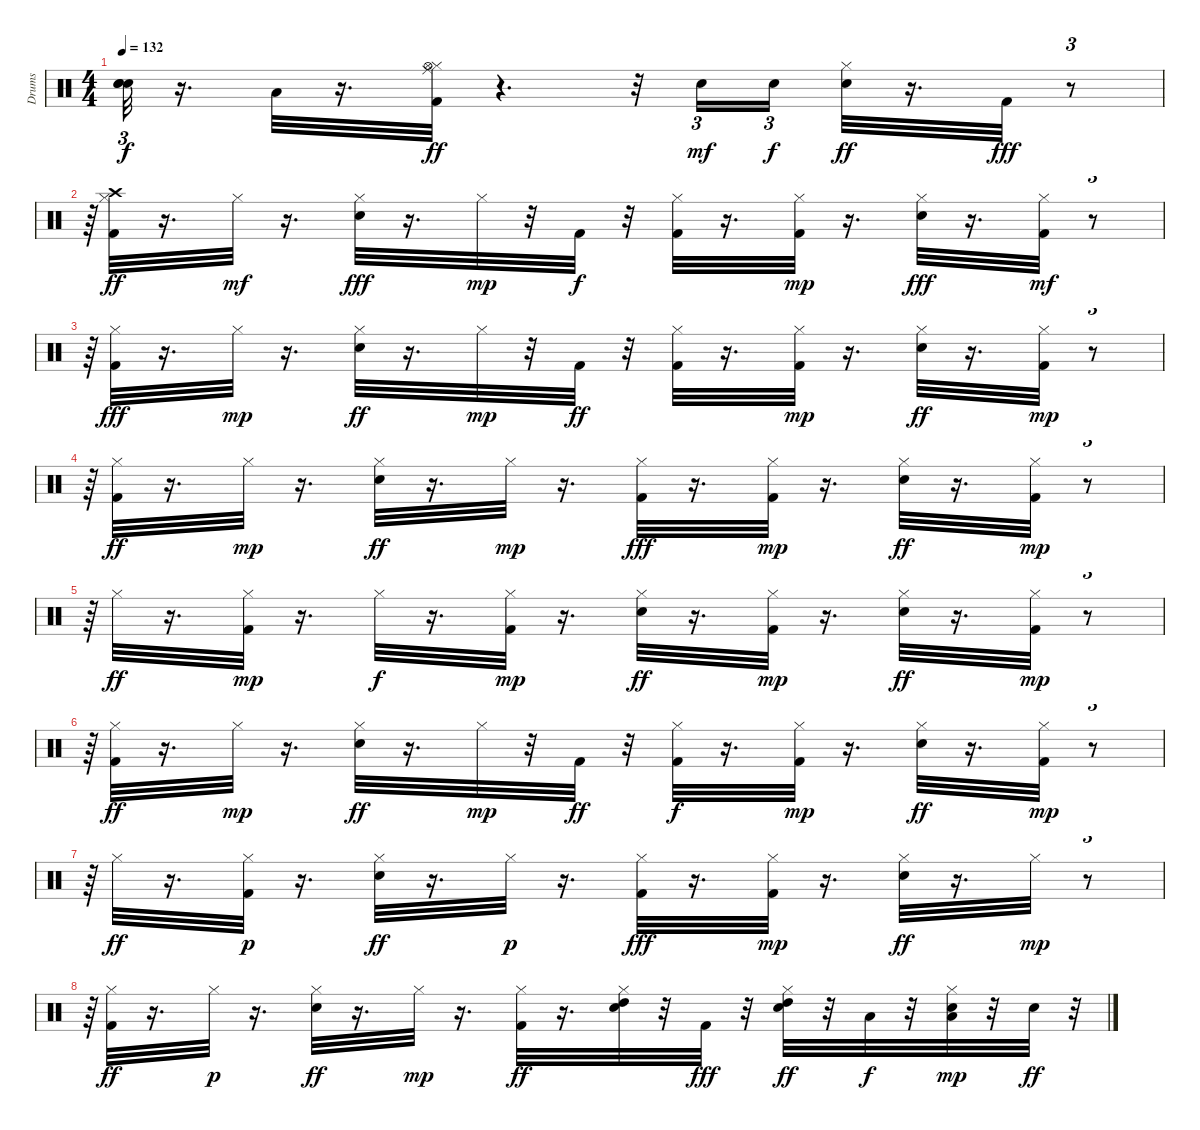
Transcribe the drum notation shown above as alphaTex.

\track ("Drums" "Drums") {instrument percussion}
\staff {score}
\articulation defaults
\ts (4 4)
\tempo 132
\clef neutral
\ks c
("Snare (hit)"{t} "Snare (hit)"{t} "Snare (hit)"{t}).32{tu (3 2) dy f} r.16{d} "Low Floor Tom (hit)".32 r.16{d} ("Kick (hit) 2" "Hi-Hat (closed)" "Ride (middle)" "Hi-Hat (open)").32{dy ff} r.4{d} r.32 "Snare (hit) 2".16{tu (3 2) dy mf} "Snare (hit) 2".16{tu (3 2) dy f} ("Snare (hit) 2" "Hi-Hat (closed)").32{dy ff} r.16{d} "Kick (hit) 2".32{dy fff} r.8{tu (3 2)} |
r.64{tu (3 2)} ("Kick (hit) 2" "Hi-Hat (closed)" "Crash high (hit)").32{dy ff} r.16{d} "Hi-Hat (closed)".32{dy mf} r.16{d} ("Snare (hit) 2" "Hi-Hat (closed)").32{dy fff} r.16{d} "Hi-Hat (closed)".32{dy mp} r.32 "Kick (hit) 2".32{dy f} r.32 ("Kick (hit) 2" "Hi-Hat (closed)").32 r.16{d} ("Kick (hit) 2" "Hi-Hat (closed)").32{dy mp} r.16{d} ("Snare (hit) 2" "Hi-Hat (closed)").32{dy fff} r.16{d} ("Kick (hit) 2" "Hi-Hat (closed)").32{dy mf} r.8{tu (3 2)} |
r.64{tu (3 2)} ("Kick (hit) 2" "Hi-Hat (closed)").32{dy fff} r.16{d} "Hi-Hat (closed)".32{dy mp} r.16{d} ("Snare (hit) 2" "Hi-Hat (closed)").32{dy ff} r.16{d} "Hi-Hat (closed)".32{dy mp} r.32 "Kick (hit) 2".32{dy ff} r.32 ("Kick (hit) 2" "Hi-Hat (closed)").32 r.16{d} ("Kick (hit) 2" "Hi-Hat (closed)").32{dy mp} r.16{d} ("Snare (hit) 2" "Hi-Hat (closed)").32{dy ff} r.16{d} ("Kick (hit) 2" "Hi-Hat (closed)").32{dy mp} r.8{tu (3 2)} |
r.64{tu (3 2)} ("Kick (hit) 2" "Hi-Hat (closed)").32{dy ff} r.16{d} "Hi-Hat (closed)".32{dy mp} r.16{d} ("Snare (hit) 2" "Hi-Hat (closed)").32{dy ff} r.16{d} "Hi-Hat (closed)".32{dy mp} r.16{d} ("Kick (hit) 2" "Hi-Hat (closed)").32{dy fff} r.16{d} ("Kick (hit) 2" "Hi-Hat (closed)").32{dy mp} r.16{d} ("Snare (hit) 2" "Hi-Hat (closed)").32{dy ff} r.16{d} ("Kick (hit) 2" "Hi-Hat (closed)").32{dy mp} r.8{tu (3 2)} |
r.64{tu (3 2)} "Hi-Hat (closed)".32{dy ff} r.16{d} ("Kick (hit) 2" "Hi-Hat (closed)").32{dy mp} r.16{d} "Hi-Hat (closed)".32{dy f} r.16{d} ("Kick (hit) 2" "Hi-Hat (closed)").32{dy mp} r.16{d} ("Snare (hit) 2" "Hi-Hat (closed)").32{dy ff} r.16{d} ("Kick (hit) 2" "Hi-Hat (closed)").32{dy mp} r.16{d} ("Snare (hit) 2" "Hi-Hat (closed)").32{dy ff} r.16{d} ("Kick (hit) 2" "Hi-Hat (closed)").32{dy mp} r.8{tu (3 2)} |
r.64{tu (3 2)} ("Kick (hit) 2" "Hi-Hat (closed)").32{dy ff} r.16{d} "Hi-Hat (closed)".32{dy mp} r.16{d} ("Snare (hit) 2" "Hi-Hat (closed)").32{dy ff} r.16{d} "Hi-Hat (closed)".32{dy mp} r.32 "Kick (hit) 2".32{dy ff} r.32 ("Kick (hit) 2" "Hi-Hat (closed)").32{dy f} r.16{d} ("Kick (hit) 2" "Hi-Hat (closed)").32{dy mp} r.16{d} ("Snare (hit) 2" "Hi-Hat (closed)").32{dy ff} r.16{d} ("Kick (hit) 2" "Hi-Hat (closed)").32{dy mp} r.8{tu (3 2)} |
r.64{tu (3 2)} "Hi-Hat (closed)".32{dy ff} r.16{d} ("Kick (hit) 2" "Hi-Hat (closed)").32{dy p} r.16{d} ("Snare (hit) 2" "Hi-Hat (closed)").32{dy ff} r.16{d} "Hi-Hat (closed)".32{dy p} r.16{d} ("Kick (hit) 2" "Hi-Hat (closed)").32{dy fff} r.16{d} ("Kick (hit) 2" "Hi-Hat (closed)").32{dy mp} r.16{d} ("Snare (hit) 2" "Hi-Hat (closed)").32{dy ff} r.16{d} "Hi-Hat (closed)".32{dy mp} r.8{tu (3 2)} |
r.64{tu (3 2)} ("Kick (hit) 2" "Hi-Hat (closed)").32{dy ff} r.16{d} "Hi-Hat (closed)".32{dy p} r.16{d} ("Snare (hit) 2" "Hi-Hat (closed)").32{dy ff} r.16{d} "Hi-Hat (closed)".32{dy mp} r.16{d} ("Kick (hit) 2" "Hi-Hat (closed)").32{dy ff} r.16{d} ("Snare (hit) 2" "Hi-Hat (closed)" "High Tom (hit)").32 r.32 "Kick (hit) 2".32{dy fff} r.32 ("Snare (hit) 2" "Hi-Hat (closed)" "High Tom (hit)").32{dy ff} r.32 "Low Tom (hit)".32{dy f} r.32 ("Snare (hit) 2" "Hi-Hat (closed)" "Low Floor Tom (hit)").32{dy mp} r.32 "Snare (hit) 2".32{dy ff} r.32{tu (3 2)}
